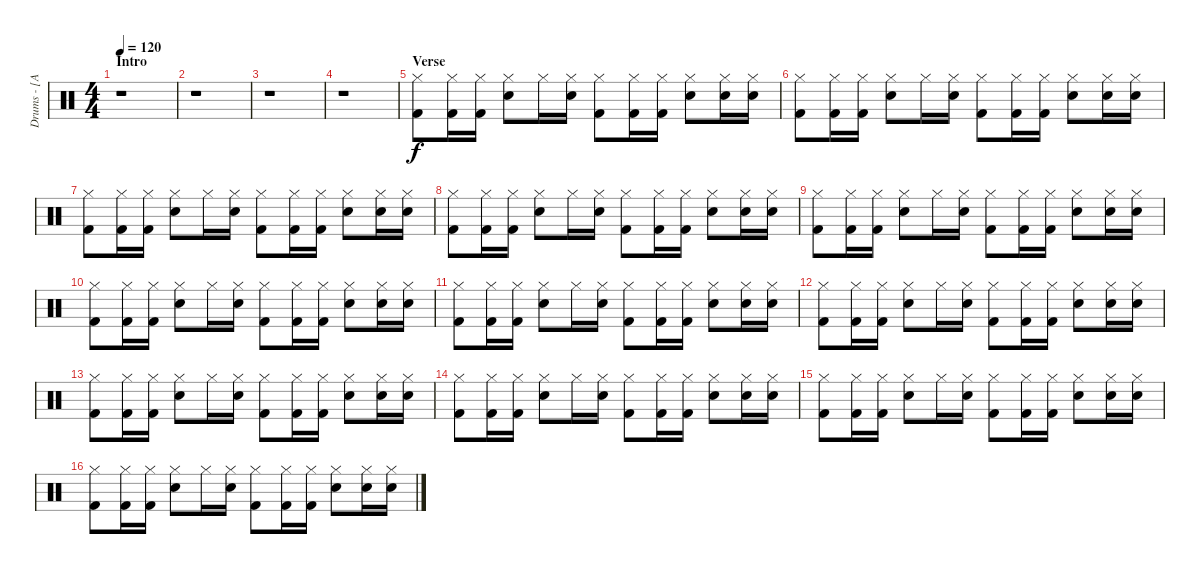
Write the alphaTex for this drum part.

\track ("Drums - [Anders]" "Drums - [A") {instrument percussion}
\staff {score}
\articulation defaults
\ts (4 4)
\section ("" "Intro")
\tempo 120
\clef neutral
\ks c
r.1{dy f} |
r.1 |
r.1 |
r.1 |
\section ("" "Verse")
("Hi-Hat (closed)" "Kick (hit) 2").8 ("Hi-Hat (closed)" "Kick (hit) 2").16 ("Hi-Hat (closed)" "Kick (hit) 2").16 ("Hi-Hat (closed)" "Snare (hit) 2").8 "Hi-Hat (closed)".16 ("Hi-Hat (closed)" "Snare (hit) 2").16 ("Hi-Hat (closed)" "Kick (hit) 2").8 ("Hi-Hat (closed)" "Kick (hit) 2").16 ("Hi-Hat (closed)" "Kick (hit) 2").16 ("Hi-Hat (closed)" "Snare (hit) 2").8 ("Hi-Hat (closed)" "Snare (hit) 2").16 ("Hi-Hat (closed)" "Snare (hit) 2").16 |
("Hi-Hat (closed)" "Kick (hit) 2").8 ("Hi-Hat (closed)" "Kick (hit) 2").16 ("Hi-Hat (closed)" "Kick (hit) 2").16 ("Hi-Hat (closed)" "Snare (hit) 2").8 "Hi-Hat (closed)".16 ("Hi-Hat (closed)" "Snare (hit) 2").16 ("Hi-Hat (closed)" "Kick (hit) 2").8 ("Hi-Hat (closed)" "Kick (hit) 2").16 ("Hi-Hat (closed)" "Kick (hit) 2").16 ("Hi-Hat (closed)" "Snare (hit) 2").8 ("Hi-Hat (closed)" "Snare (hit) 2").16 ("Hi-Hat (closed)" "Snare (hit) 2").16 |
("Hi-Hat (closed)" "Kick (hit) 2").8 ("Hi-Hat (closed)" "Kick (hit) 2").16 ("Hi-Hat (closed)" "Kick (hit) 2").16 ("Hi-Hat (closed)" "Snare (hit) 2").8 "Hi-Hat (closed)".16 ("Hi-Hat (closed)" "Snare (hit) 2").16 ("Hi-Hat (closed)" "Kick (hit) 2").8 ("Hi-Hat (closed)" "Kick (hit) 2").16 ("Hi-Hat (closed)" "Kick (hit) 2").16 ("Hi-Hat (closed)" "Snare (hit) 2").8 ("Hi-Hat (closed)" "Snare (hit) 2").16 ("Hi-Hat (closed)" "Snare (hit) 2").16 |
("Hi-Hat (closed)" "Kick (hit) 2").8 ("Hi-Hat (closed)" "Kick (hit) 2").16 ("Hi-Hat (closed)" "Kick (hit) 2").16 ("Hi-Hat (closed)" "Snare (hit) 2").8 "Hi-Hat (closed)".16 ("Hi-Hat (closed)" "Snare (hit) 2").16 ("Hi-Hat (closed)" "Kick (hit) 2").8 ("Hi-Hat (closed)" "Kick (hit) 2").16 ("Hi-Hat (closed)" "Kick (hit) 2").16 ("Hi-Hat (closed)" "Snare (hit) 2").8 ("Hi-Hat (closed)" "Snare (hit) 2").16 ("Hi-Hat (closed)" "Snare (hit) 2").16 |
("Hi-Hat (closed)" "Kick (hit) 2").8 ("Hi-Hat (closed)" "Kick (hit) 2").16 ("Hi-Hat (closed)" "Kick (hit) 2").16 ("Hi-Hat (closed)" "Snare (hit) 2").8 "Hi-Hat (closed)".16 ("Hi-Hat (closed)" "Snare (hit) 2").16 ("Hi-Hat (closed)" "Kick (hit) 2").8 ("Hi-Hat (closed)" "Kick (hit) 2").16 ("Hi-Hat (closed)" "Kick (hit) 2").16 ("Hi-Hat (closed)" "Snare (hit) 2").8 ("Hi-Hat (closed)" "Snare (hit) 2").16 ("Hi-Hat (closed)" "Snare (hit) 2").16 |
("Hi-Hat (closed)" "Kick (hit) 2").8 ("Hi-Hat (closed)" "Kick (hit) 2").16 ("Hi-Hat (closed)" "Kick (hit) 2").16 ("Hi-Hat (closed)" "Snare (hit) 2").8 "Hi-Hat (closed)".16 ("Hi-Hat (closed)" "Snare (hit) 2").16 ("Hi-Hat (closed)" "Kick (hit) 2").8 ("Hi-Hat (closed)" "Kick (hit) 2").16 ("Hi-Hat (closed)" "Kick (hit) 2").16 ("Hi-Hat (closed)" "Snare (hit) 2").8 ("Hi-Hat (closed)" "Snare (hit) 2").16 ("Hi-Hat (closed)" "Snare (hit) 2").16 |
("Hi-Hat (closed)" "Kick (hit) 2").8 ("Hi-Hat (closed)" "Kick (hit) 2").16 ("Hi-Hat (closed)" "Kick (hit) 2").16 ("Hi-Hat (closed)" "Snare (hit) 2").8 "Hi-Hat (closed)".16 ("Hi-Hat (closed)" "Snare (hit) 2").16 ("Hi-Hat (closed)" "Kick (hit) 2").8 ("Hi-Hat (closed)" "Kick (hit) 2").16 ("Hi-Hat (closed)" "Kick (hit) 2").16 ("Hi-Hat (closed)" "Snare (hit) 2").8 ("Hi-Hat (closed)" "Snare (hit) 2").16 ("Hi-Hat (closed)" "Snare (hit) 2").16 |
("Hi-Hat (closed)" "Kick (hit) 2").8 ("Hi-Hat (closed)" "Kick (hit) 2").16 ("Hi-Hat (closed)" "Kick (hit) 2").16 ("Hi-Hat (closed)" "Snare (hit) 2").8 "Hi-Hat (closed)".16 ("Hi-Hat (closed)" "Snare (hit) 2").16 ("Hi-Hat (closed)" "Kick (hit) 2").8 ("Hi-Hat (closed)" "Kick (hit) 2").16 ("Hi-Hat (closed)" "Kick (hit) 2").16 ("Hi-Hat (closed)" "Snare (hit) 2").8 ("Hi-Hat (closed)" "Snare (hit) 2").16 ("Hi-Hat (closed)" "Snare (hit) 2").16 |
("Hi-Hat (closed)" "Kick (hit) 2").8 ("Hi-Hat (closed)" "Kick (hit) 2").16 ("Hi-Hat (closed)" "Kick (hit) 2").16 ("Hi-Hat (closed)" "Snare (hit) 2").8 "Hi-Hat (closed)".16 ("Hi-Hat (closed)" "Snare (hit) 2").16 ("Hi-Hat (closed)" "Kick (hit) 2").8 ("Hi-Hat (closed)" "Kick (hit) 2").16 ("Hi-Hat (closed)" "Kick (hit) 2").16 ("Hi-Hat (closed)" "Snare (hit) 2").8 ("Hi-Hat (closed)" "Snare (hit) 2").16 ("Hi-Hat (closed)" "Snare (hit) 2").16 |
("Hi-Hat (closed)" "Kick (hit) 2").8 ("Hi-Hat (closed)" "Kick (hit) 2").16 ("Hi-Hat (closed)" "Kick (hit) 2").16 ("Hi-Hat (closed)" "Snare (hit) 2").8 "Hi-Hat (closed)".16 ("Hi-Hat (closed)" "Snare (hit) 2").16 ("Hi-Hat (closed)" "Kick (hit) 2").8 ("Hi-Hat (closed)" "Kick (hit) 2").16 ("Hi-Hat (closed)" "Kick (hit) 2").16 ("Hi-Hat (closed)" "Snare (hit) 2").8 ("Hi-Hat (closed)" "Snare (hit) 2").16 ("Hi-Hat (closed)" "Snare (hit) 2").16 |
("Hi-Hat (closed)" "Kick (hit) 2").8 ("Hi-Hat (closed)" "Kick (hit) 2").16 ("Hi-Hat (closed)" "Kick (hit) 2").16 ("Hi-Hat (closed)" "Snare (hit) 2").8 "Hi-Hat (closed)".16 ("Hi-Hat (closed)" "Snare (hit) 2").16 ("Hi-Hat (closed)" "Kick (hit) 2").8 ("Hi-Hat (closed)" "Kick (hit) 2").16 ("Hi-Hat (closed)" "Kick (hit) 2").16 ("Hi-Hat (closed)" "Snare (hit) 2").8 ("Hi-Hat (closed)" "Snare (hit) 2").16 ("Hi-Hat (closed)" "Snare (hit) 2").16 |
("Hi-Hat (closed)" "Kick (hit) 2").8 ("Hi-Hat (closed)" "Kick (hit) 2").16 ("Hi-Hat (closed)" "Kick (hit) 2").16 ("Hi-Hat (closed)" "Snare (hit) 2").8 "Hi-Hat (closed)".16 ("Hi-Hat (closed)" "Snare (hit) 2").16 ("Hi-Hat (closed)" "Kick (hit) 2").8 ("Hi-Hat (closed)" "Kick (hit) 2").16 ("Hi-Hat (closed)" "Kick (hit) 2").16 ("Hi-Hat (closed)" "Snare (hit) 2").8 ("Hi-Hat (closed)" "Snare (hit) 2").16 ("Hi-Hat (closed)" "Snare (hit) 2").16
